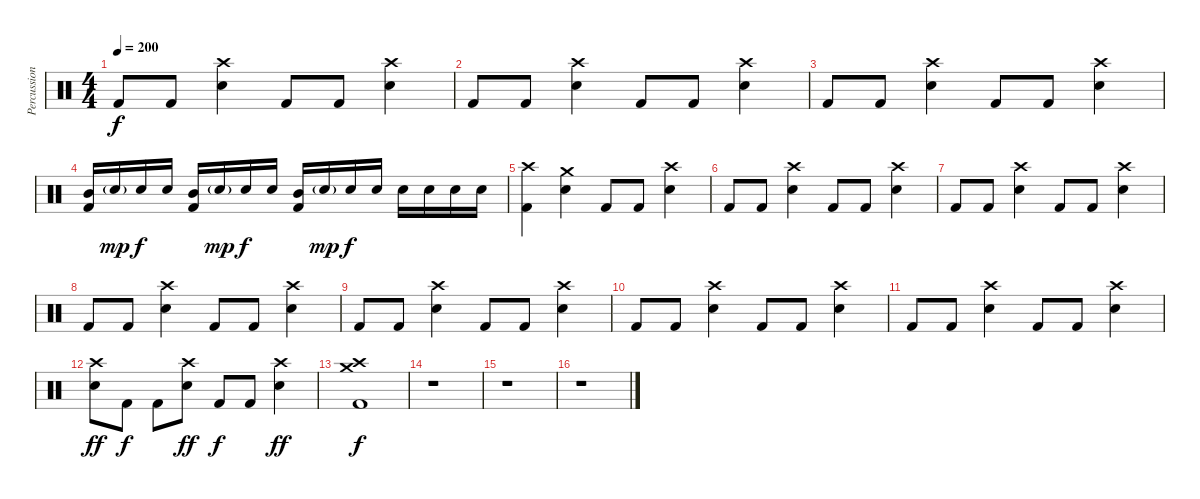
\track ("Percussion" "Percussion") {instrument percussion}
\staff {score}
\articulation defaults
\ts (4 4)
\tempo 200
\clef neutral
\ks c "Kick (hit) 2".8{dy f} "Kick (hit) 2".8
("Crash high (hit)" "Electric Snare (hit)").4 "Kick (hit) 2".8 "Kick (hit) 2".8 ("Crash high (hit)" "Electric Snare (hit)").4 |
"Kick (hit) 2".8 "Kick (hit) 2".8 ("Crash high (hit)" "Electric Snare (hit)").4 "Kick (hit) 2".8 "Kick (hit) 2".8 ("Crash high (hit)" "Electric Snare (hit)").4 |
"Kick (hit) 2".8 "Kick (hit) 2".8 ("Crash high (hit)" "Electric Snare (hit)").4 "Kick (hit) 2".8 "Kick (hit) 2".8 ("Crash high (hit)" "Electric Snare (hit)").4 |
("Mid Tom (hit)" "Kick (hit) 2").16 "Electric Snare (hit)"{g}.16{dy mp} "Electric Snare (hit)".16{dy f} "Electric Snare (hit)".16 ("Mid Tom (hit)" "Kick (hit) 2").16 "Electric Snare (hit)"{g}.16{dy mp} "Electric Snare (hit)".16{dy f} "Electric Snare (hit)".16 ("Mid Tom (hit)" "Kick (hit) 2").16 "Electric Snare (hit)"{g}.16{dy mp} "Electric Snare (hit)".16{dy f} "Electric Snare (hit)".16 "Electric Snare (hit)".16 "Electric Snare (hit)".16 "Electric Snare (hit)".16 "Electric Snare (hit)".16 |
("Crash high (hit)" "Kick (hit) 2").4 ("Crash medium (hit)" "Electric Snare (hit)").4 "Kick (hit) 2".8 "Kick (hit) 2".8 ("Crash high (hit)" "Electric Snare (hit)").4 |
"Kick (hit) 2".8 "Kick (hit) 2".8 ("Crash high (hit)" "Electric Snare (hit)").4 "Kick (hit) 2".8 "Kick (hit) 2".8 ("Crash high (hit)" "Electric Snare (hit)").4 |
"Kick (hit) 2".8 "Kick (hit) 2".8 ("Crash high (hit)" "Electric Snare (hit)").4 "Kick (hit) 2".8 "Kick (hit) 2".8 ("Crash high (hit)" "Electric Snare (hit)").4 |
"Kick (hit) 2".8 "Kick (hit) 2".8 ("Crash high (hit)" "Electric Snare (hit)").4 "Kick (hit) 2".8 "Kick (hit) 2".8 ("Crash high (hit)" "Electric Snare (hit)").4 |
"Kick (hit) 2".8 "Kick (hit) 2".8 ("Crash high (hit)" "Electric Snare (hit)").4 "Kick (hit) 2".8 "Kick (hit) 2".8 ("Crash high (hit)" "Electric Snare (hit)").4 |
"Kick (hit) 2".8 "Kick (hit) 2".8 ("Crash high (hit)" "Electric Snare (hit)").4 "Kick (hit) 2".8 "Kick (hit) 2".8 ("Crash high (hit)" "Electric Snare (hit)").4 |
"Kick (hit) 2".8 "Kick (hit) 2".8 ("Crash high (hit)" "Electric Snare (hit)").4 "Kick (hit) 2".8 "Kick (hit) 2".8 ("Crash high (hit)" "Electric Snare (hit)").4 |
("Crash high (hit)" "Electric Snare (hit)").8{dy ff} "Kick (hit) 2".8{dy f} "Kick (hit) 2".8 ("Crash high (hit)" "Electric Snare (hit)").8{dy ff} "Kick (hit) 2".8{dy f} "Kick (hit) 2".8 ("Crash high (hit)" "Electric Snare (hit)").4{dy ff} |
("Crash medium (hit)" "Crash high (hit)" "Kick (hit) 2").1{dy f} |
r.1 |
r.1 |
r.1
